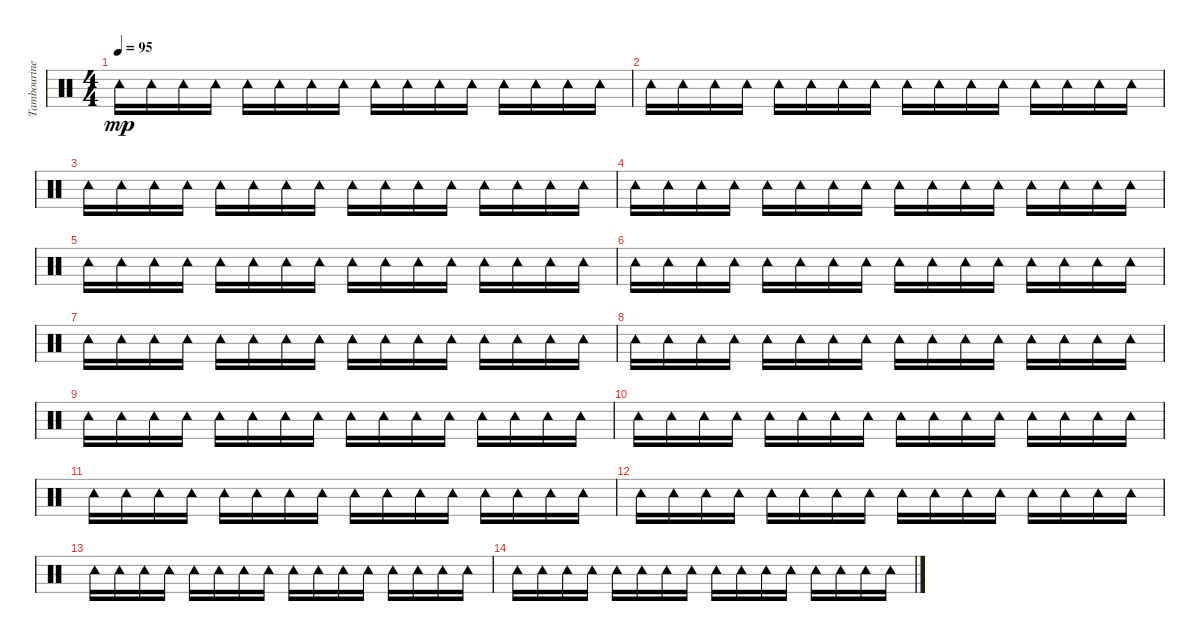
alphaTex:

\track ("Tambourine" "Tambourine") {instrument percussion}
\staff {score}
\articulation defaults
\ts (4 4)
\tempo 95
\clef neutral
\ks c "Tambourine (hit)".16{dy mp} "Tambourine (hit)".16 "Tambourine (hit)".16 "Tambourine (hit)".16 "Tambourine (hit)".16 "Tambourine (hit)".16 "Tambourine (hit)".16 "Tambourine (hit)".16 "Tambourine (hit)".16 "Tambourine (hit)".16 "Tambourine (hit)".16 "Tambourine (hit)".16 "Tambourine (hit)".16 "Tambourine (hit)".16 "Tambourine (hit)".16 "Tambourine (hit)".16
|
"Tambourine (hit)".16 "Tambourine (hit)".16 "Tambourine (hit)".16 "Tambourine (hit)".16 "Tambourine (hit)".16 "Tambourine (hit)".16 "Tambourine (hit)".16 "Tambourine (hit)".16 "Tambourine (hit)".16 "Tambourine (hit)".16 "Tambourine (hit)".16 "Tambourine (hit)".16 "Tambourine (hit)".16 "Tambourine (hit)".16 "Tambourine (hit)".16 "Tambourine (hit)".16 |
"Tambourine (hit)".16 "Tambourine (hit)".16 "Tambourine (hit)".16 "Tambourine (hit)".16 "Tambourine (hit)".16 "Tambourine (hit)".16 "Tambourine (hit)".16 "Tambourine (hit)".16 "Tambourine (hit)".16 "Tambourine (hit)".16 "Tambourine (hit)".16 "Tambourine (hit)".16 "Tambourine (hit)".16 "Tambourine (hit)".16 "Tambourine (hit)".16 "Tambourine (hit)".16 |
"Tambourine (hit)".16 "Tambourine (hit)".16 "Tambourine (hit)".16 "Tambourine (hit)".16 "Tambourine (hit)".16 "Tambourine (hit)".16 "Tambourine (hit)".16 "Tambourine (hit)".16 "Tambourine (hit)".16 "Tambourine (hit)".16 "Tambourine (hit)".16 "Tambourine (hit)".16 "Tambourine (hit)".16 "Tambourine (hit)".16 "Tambourine (hit)".16 "Tambourine (hit)".16 |
"Tambourine (hit)".16 "Tambourine (hit)".16 "Tambourine (hit)".16 "Tambourine (hit)".16 "Tambourine (hit)".16 "Tambourine (hit)".16 "Tambourine (hit)".16 "Tambourine (hit)".16 "Tambourine (hit)".16 "Tambourine (hit)".16 "Tambourine (hit)".16 "Tambourine (hit)".16 "Tambourine (hit)".16 "Tambourine (hit)".16 "Tambourine (hit)".16 "Tambourine (hit)".16 |
"Tambourine (hit)".16 "Tambourine (hit)".16 "Tambourine (hit)".16 "Tambourine (hit)".16 "Tambourine (hit)".16 "Tambourine (hit)".16 "Tambourine (hit)".16 "Tambourine (hit)".16 "Tambourine (hit)".16 "Tambourine (hit)".16 "Tambourine (hit)".16 "Tambourine (hit)".16 "Tambourine (hit)".16 "Tambourine (hit)".16 "Tambourine (hit)".16 "Tambourine (hit)".16 |
"Tambourine (hit)".16 "Tambourine (hit)".16 "Tambourine (hit)".16 "Tambourine (hit)".16 "Tambourine (hit)".16 "Tambourine (hit)".16 "Tambourine (hit)".16 "Tambourine (hit)".16 "Tambourine (hit)".16 "Tambourine (hit)".16 "Tambourine (hit)".16 "Tambourine (hit)".16 "Tambourine (hit)".16 "Tambourine (hit)".16 "Tambourine (hit)".16 "Tambourine (hit)".16 |
"Tambourine (hit)".16 "Tambourine (hit)".16 "Tambourine (hit)".16 "Tambourine (hit)".16 "Tambourine (hit)".16 "Tambourine (hit)".16 "Tambourine (hit)".16 "Tambourine (hit)".16 "Tambourine (hit)".16 "Tambourine (hit)".16 "Tambourine (hit)".16 "Tambourine (hit)".16 "Tambourine (hit)".16 "Tambourine (hit)".16 "Tambourine (hit)".16 "Tambourine (hit)".16 |
"Tambourine (hit)".16 "Tambourine (hit)".16 "Tambourine (hit)".16 "Tambourine (hit)".16 "Tambourine (hit)".16 "Tambourine (hit)".16 "Tambourine (hit)".16 "Tambourine (hit)".16 "Tambourine (hit)".16 "Tambourine (hit)".16 "Tambourine (hit)".16 "Tambourine (hit)".16 "Tambourine (hit)".16 "Tambourine (hit)".16 "Tambourine (hit)".16 "Tambourine (hit)".16 |
"Tambourine (hit)".16 "Tambourine (hit)".16 "Tambourine (hit)".16 "Tambourine (hit)".16 "Tambourine (hit)".16 "Tambourine (hit)".16 "Tambourine (hit)".16 "Tambourine (hit)".16 "Tambourine (hit)".16 "Tambourine (hit)".16 "Tambourine (hit)".16 "Tambourine (hit)".16 "Tambourine (hit)".16 "Tambourine (hit)".16 "Tambourine (hit)".16 "Tambourine (hit)".16 |
"Tambourine (hit)".16 "Tambourine (hit)".16 "Tambourine (hit)".16 "Tambourine (hit)".16 "Tambourine (hit)".16 "Tambourine (hit)".16 "Tambourine (hit)".16 "Tambourine (hit)".16 "Tambourine (hit)".16 "Tambourine (hit)".16 "Tambourine (hit)".16 "Tambourine (hit)".16 "Tambourine (hit)".16 "Tambourine (hit)".16 "Tambourine (hit)".16 "Tambourine (hit)".16 |
"Tambourine (hit)".16 "Tambourine (hit)".16 "Tambourine (hit)".16 "Tambourine (hit)".16 "Tambourine (hit)".16 "Tambourine (hit)".16 "Tambourine (hit)".16 "Tambourine (hit)".16 "Tambourine (hit)".16 "Tambourine (hit)".16 "Tambourine (hit)".16 "Tambourine (hit)".16 "Tambourine (hit)".16 "Tambourine (hit)".16 "Tambourine (hit)".16 "Tambourine (hit)".16 |
"Tambourine (hit)".16 "Tambourine (hit)".16 "Tambourine (hit)".16 "Tambourine (hit)".16 "Tambourine (hit)".16 "Tambourine (hit)".16 "Tambourine (hit)".16 "Tambourine (hit)".16 "Tambourine (hit)".16 "Tambourine (hit)".16 "Tambourine (hit)".16 "Tambourine (hit)".16 "Tambourine (hit)".16 "Tambourine (hit)".16 "Tambourine (hit)".16 "Tambourine (hit)".16 |
"Tambourine (hit)".16 "Tambourine (hit)".16 "Tambourine (hit)".16 "Tambourine (hit)".16 "Tambourine (hit)".16 "Tambourine (hit)".16 "Tambourine (hit)".16 "Tambourine (hit)".16 "Tambourine (hit)".16 "Tambourine (hit)".16 "Tambourine (hit)".16 "Tambourine (hit)".16 "Tambourine (hit)".16 "Tambourine (hit)".16 "Tambourine (hit)".16 "Tambourine (hit)".16
